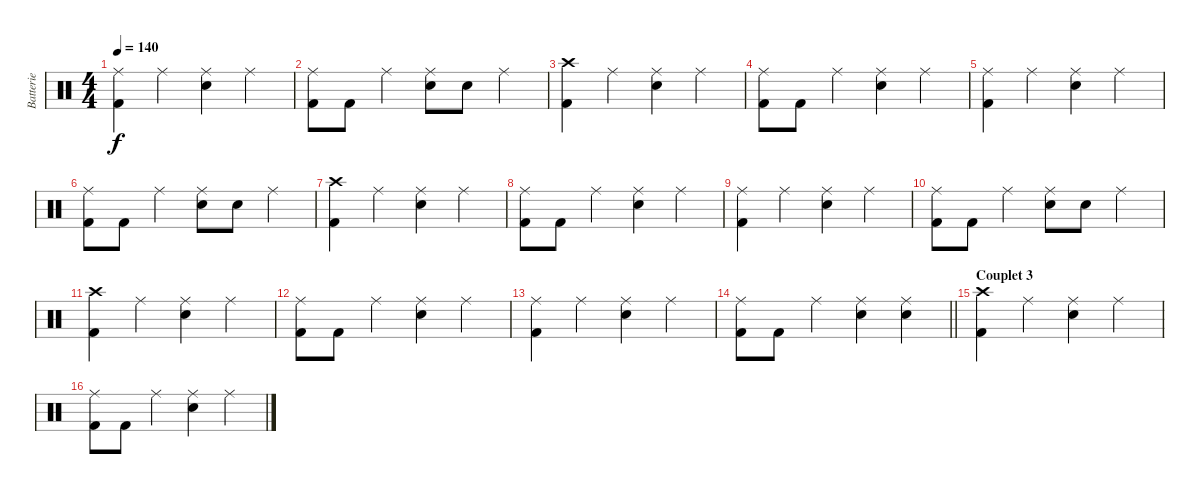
\track ("Batterie" "Batterie") {instrument percussion}
\staff {score}
\articulation defaults
\ts (4 4)
\tempo 140
\clef neutral
\ks c
("Ride (middle)" "Kick (hit) 2").4{dy f} "Ride (middle)".4 ("Ride (middle)" "Electric Snare (hit)").4 "Ride (middle)".4 |
("Ride (middle)" "Kick (hit) 2").8 "Kick (hit) 2".8 "Ride (middle)".4 ("Ride (middle)" "Electric Snare (hit)").8 "Electric Snare (hit)".8 "Ride (middle)".4 |
("Crash high (hit)" "Kick (hit) 2").4 "Ride (middle)".4 ("Ride (middle)" "Electric Snare (hit)").4 "Ride (middle)".4 |
("Ride (middle)" "Kick (hit) 2").8 "Kick (hit) 2".8 "Ride (middle)".4 ("Ride (middle)" "Electric Snare (hit)").4 "Ride (middle)".4 |
("Ride (middle)" "Kick (hit) 2").4 "Ride (middle)".4 ("Ride (middle)" "Electric Snare (hit)").4 "Ride (middle)".4 |
("Ride (middle)" "Kick (hit) 2").8 "Kick (hit) 2".8 "Ride (middle)".4 ("Ride (middle)" "Electric Snare (hit)").8 "Electric Snare (hit)".8 "Ride (middle)".4 |
("Crash high (hit)" "Kick (hit) 2").4 "Ride (middle)".4 ("Ride (middle)" "Electric Snare (hit)").4 "Ride (middle)".4 |
("Ride (middle)" "Kick (hit) 2").8 "Kick (hit) 2".8 "Ride (middle)".4 ("Ride (middle)" "Electric Snare (hit)").4 "Ride (middle)".4 |
("Ride (middle)" "Kick (hit) 2").4 "Ride (middle)".4 ("Ride (middle)" "Electric Snare (hit)").4 "Ride (middle)".4 |
("Ride (middle)" "Kick (hit) 2").8 "Kick (hit) 2".8 "Ride (middle)".4 ("Ride (middle)" "Electric Snare (hit)").8 "Electric Snare (hit)".8 "Ride (middle)".4 |
("Crash high (hit)" "Kick (hit) 2").4 "Ride (middle)".4 ("Ride (middle)" "Electric Snare (hit)").4 "Ride (middle)".4 |
("Ride (middle)" "Kick (hit) 2").8 "Kick (hit) 2".8 "Ride (middle)".4 ("Ride (middle)" "Electric Snare (hit)").4 "Ride (middle)".4 |
("Ride (middle)" "Kick (hit) 2").4 "Ride (middle)".4 ("Ride (middle)" "Electric Snare (hit)").4 "Ride (middle)".4 |
\barLineRight lightlight
("Ride (middle)" "Kick (hit) 2").8 "Kick (hit) 2".8 "Ride (middle)".4 ("Ride (middle)" "Electric Snare (hit)").4 ("Ride (middle)" "Electric Snare (hit)").4 |
\section ("" "Couplet 3")
("Crash high (hit)" "Kick (hit) 2").4 "Ride (middle)".4 ("Ride (middle)" "Electric Snare (hit)").4 "Ride (middle)".4 |
("Ride (middle)" "Kick (hit) 2").8 "Kick (hit) 2".8 "Ride (middle)".4 ("Ride (middle)" "Electric Snare (hit)").4 "Ride (middle)".4
